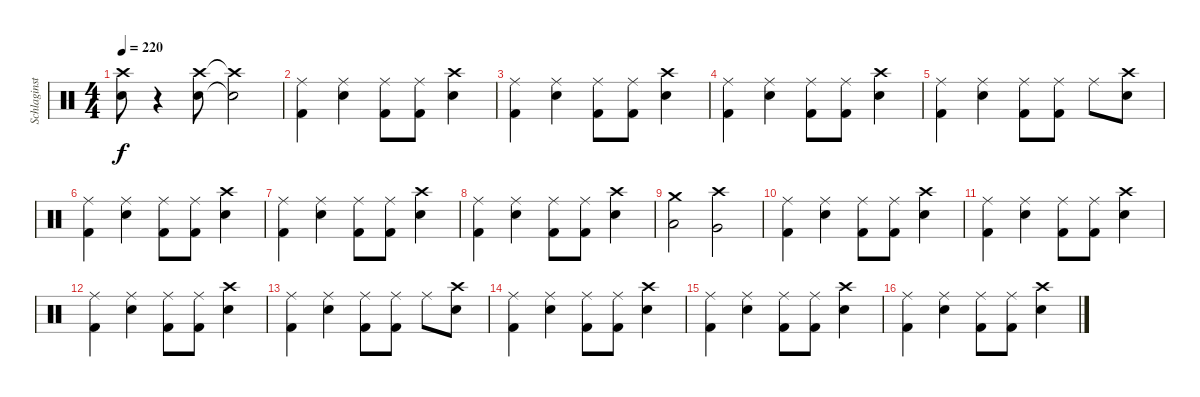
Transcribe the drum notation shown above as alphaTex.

\track ("Schlaginstrumente - Auswahl" "Schlaginst") {instrument percussion}
\staff {score}
\articulation defaults
\ts (4 4)
\tempo 220
\clef neutral
\ks c
("Crash high (hit)" "Snare (hit) 2").8{dy f} r.4 ("Crash high (hit)" "Snare (hit) 2").8 ("Crash high (hit)"{t} "Snare (hit) 2"{t}).2 |
("Ride (middle)" "Kick (hit) 2").4 ("Ride (middle)" "Snare (hit) 2").4 ("Ride (middle)" "Kick (hit) 2").8 ("Ride (middle)" "Kick (hit) 2").8 ("Crash high (hit)" "Snare (hit) 2").4 |
("Ride (middle)" "Kick (hit) 2").4 ("Ride (middle)" "Snare (hit) 2").4 ("Ride (middle)" "Kick (hit) 2").8 ("Ride (middle)" "Kick (hit) 2").8 ("Crash high (hit)" "Snare (hit) 2").4 |
("Ride (middle)" "Kick (hit) 2").4 ("Ride (middle)" "Snare (hit) 2").4 ("Ride (middle)" "Kick (hit) 2").8 ("Ride (middle)" "Kick (hit) 2").8 ("Crash high (hit)" "Snare (hit) 2").4 |
("Ride (middle)" "Kick (hit) 2").4 ("Ride (middle)" "Snare (hit) 2").4 ("Ride (middle)" "Kick (hit) 2").8 ("Ride (middle)" "Kick (hit) 2").8 "Ride (middle)".8 ("Crash high (hit)" "Snare (hit) 2").8 |
("Ride (middle)" "Kick (hit) 2").4 ("Ride (middle)" "Snare (hit) 2").4 ("Ride (middle)" "Kick (hit) 2").8 ("Ride (middle)" "Kick (hit) 2").8 ("Crash high (hit)" "Snare (hit) 2").4 |
("Ride (middle)" "Kick (hit) 2").4 ("Ride (middle)" "Snare (hit) 2").4 ("Ride (middle)" "Kick (hit) 2").8 ("Ride (middle)" "Kick (hit) 2").8 ("Crash high (hit)" "Snare (hit) 2").4 |
("Ride (middle)" "Kick (hit) 2").4 ("Ride (middle)" "Snare (hit) 2").4 ("Ride (middle)" "Kick (hit) 2").8 ("Ride (middle)" "Kick (hit) 2").8 ("Crash high (hit)" "Snare (hit) 2").4 |
("Crash medium (hit)" "Low Tom (hit)").2 ("Crash high (hit)" "Very Low Tom (hit)").2 |
("Ride (middle)" "Kick (hit) 2").4 ("Ride (middle)" "Snare (hit) 2").4 ("Ride (middle)" "Kick (hit) 2").8 ("Ride (middle)" "Kick (hit) 2").8 ("Crash high (hit)" "Snare (hit) 2").4 |
("Ride (middle)" "Kick (hit) 2").4 ("Ride (middle)" "Snare (hit) 2").4 ("Ride (middle)" "Kick (hit) 2").8 ("Ride (middle)" "Kick (hit) 2").8 ("Crash high (hit)" "Snare (hit) 2").4 |
("Ride (middle)" "Kick (hit) 2").4 ("Ride (middle)" "Snare (hit) 2").4 ("Ride (middle)" "Kick (hit) 2").8 ("Ride (middle)" "Kick (hit) 2").8 ("Crash high (hit)" "Snare (hit) 2").4 |
("Ride (middle)" "Kick (hit) 2").4 ("Ride (middle)" "Snare (hit) 2").4 ("Ride (middle)" "Kick (hit) 2").8 ("Ride (middle)" "Kick (hit) 2").8 "Ride (middle)".8 ("Crash high (hit)" "Snare (hit) 2").8 |
("Ride (middle)" "Kick (hit) 2").4 ("Ride (middle)" "Snare (hit) 2").4 ("Ride (middle)" "Kick (hit) 2").8 ("Ride (middle)" "Kick (hit) 2").8 ("Crash high (hit)" "Snare (hit) 2").4 |
("Ride (middle)" "Kick (hit) 2").4 ("Ride (middle)" "Snare (hit) 2").4 ("Ride (middle)" "Kick (hit) 2").8 ("Ride (middle)" "Kick (hit) 2").8 ("Crash high (hit)" "Snare (hit) 2").4 |
("Ride (middle)" "Kick (hit) 2").4 ("Ride (middle)" "Snare (hit) 2").4 ("Ride (middle)" "Kick (hit) 2").8 ("Ride (middle)" "Kick (hit) 2").8 ("Crash high (hit)" "Snare (hit) 2").4
